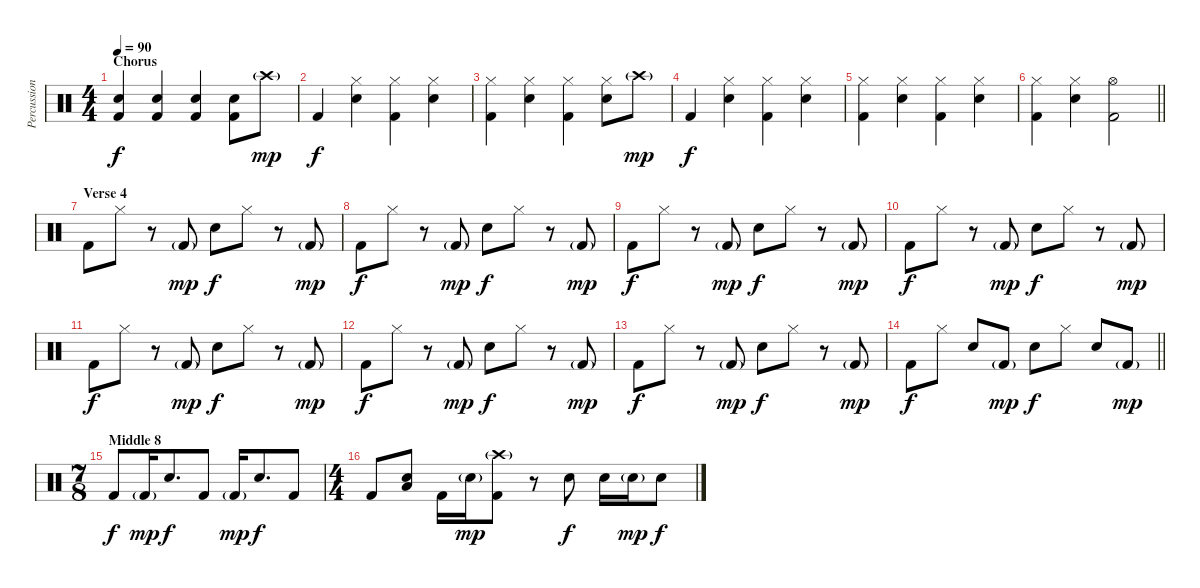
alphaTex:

\track ("Percussion" "Percussion") {instrument percussion}
\staff {score}
\articulation defaults
\ts (4 4)
\section ("" "Chorus")
\tempo 90
\clef neutral
\ks c
("Snare (hit) 2" "Kick (hit) 2").4{dy f} ("Snare (hit) 2" "Kick (hit) 2").4 ("Snare (hit) 2" "Kick (hit) 2").4 ("Snare (hit) 2" "Kick (hit) 2").8 "Crash high (hit)"{g}.8{dy mp} |
"Kick (hit) 2".4{dy f} ("Hi-Hat (closed)" "Snare (hit) 2").4 ("Hi-Hat (closed)" "Kick (hit) 2").4 ("Hi-Hat (closed)" "Snare (hit) 2").4 |
("Hi-Hat (closed)" "Kick (hit) 2").4 ("Hi-Hat (closed)" "Snare (hit) 2").4 ("Hi-Hat (closed)" "Kick (hit) 2").4 ("Hi-Hat (closed)" "Snare (hit) 2").8 "Crash high (hit)"{g}.8{dy mp} |
"Kick (hit) 2".4{dy f} ("Hi-Hat (closed)" "Snare (hit) 2").4 ("Hi-Hat (closed)" "Kick (hit) 2").4 ("Hi-Hat (closed)" "Snare (hit) 2").4 |
("Hi-Hat (closed)" "Kick (hit) 2").4 ("Hi-Hat (closed)" "Snare (hit) 2").4 ("Hi-Hat (closed)" "Kick (hit) 2").4 ("Hi-Hat (closed)" "Snare (hit) 2").4 |
\barLineRight lightlight
("Hi-Hat (closed)" "Kick (hit) 2").4 ("Hi-Hat (closed)" "Snare (hit) 2").4 ("Hi-Hat (open)" "Kick (hit) 2").2 |
\section ("" "Verse 4")
"Kick (hit) 2".8 "Hi-Hat (closed)".8 r.8 "Kick (hit) 2"{g}.8{dy mp} "Snare (hit) 2".8{dy f} "Hi-Hat (closed)".8 r.8 "Kick (hit) 2"{g}.8{dy mp} |
"Kick (hit) 2".8{dy f} "Hi-Hat (closed)".8 r.8 "Kick (hit) 2"{g}.8{dy mp} "Snare (hit) 2".8{dy f} "Hi-Hat (closed)".8 r.8 "Kick (hit) 2"{g}.8{dy mp} |
"Kick (hit) 2".8{dy f} "Hi-Hat (closed)".8 r.8 "Kick (hit) 2"{g}.8{dy mp} "Snare (hit) 2".8{dy f} "Hi-Hat (closed)".8 r.8 "Kick (hit) 2"{g}.8{dy mp} |
"Kick (hit) 2".8{dy f} "Hi-Hat (closed)".8 r.8 "Kick (hit) 2"{g}.8{dy mp} "Snare (hit) 2".8{dy f} "Hi-Hat (closed)".8 r.8 "Kick (hit) 2"{g}.8{dy mp} |
"Kick (hit) 2".8{dy f} "Hi-Hat (closed)".8 r.8 "Kick (hit) 2"{g}.8{dy mp} "Snare (hit) 2".8{dy f} "Hi-Hat (closed)".8 r.8 "Kick (hit) 2"{g}.8{dy mp} |
"Kick (hit) 2".8{dy f} "Hi-Hat (closed)".8 r.8 "Kick (hit) 2"{g}.8{dy mp} "Snare (hit) 2".8{dy f} "Hi-Hat (closed)".8 r.8 "Kick (hit) 2"{g}.8{dy mp} |
"Kick (hit) 2".8{dy f} "Hi-Hat (closed)".8 r.8 "Kick (hit) 2"{g}.8{dy mp} "Snare (hit) 2".8{dy f} "Hi-Hat (closed)".8 r.8 "Kick (hit) 2"{g}.8{dy mp} |
\barLineRight lightlight "Kick (hit) 2".8{dy f} "Hi-Hat (closed)".8 "Snare (hit) 2".8 "Kick (hit) 2"{g}.8{dy mp} "Snare (hit) 2".8{dy f} "Hi-Hat (closed)".8 "Snare (hit) 2".8 "Kick (hit) 2"{g}.8{dy mp}
|
\ts (7 8)
\section ("" "Middle 8")
"Kick (hit) 2".8{dy f} "Kick (hit) 2"{g}.16{dy mp} "Snare (hit) 2".8{d dy f} "Kick (hit) 2".8 "Kick (hit) 2"{g}.16{dy mp} "Snare (hit) 2".8{d dy f} "Kick (hit) 2".8 |
\ts (4 4)
"Kick (hit) 2".8 ("Snare (hit) 2" "Low Floor Tom (hit)").8 "Kick (hit) 2".16 "Snare (hit) 2"{g}.16{dy mp} ("Crash high (hit)"{g} "Kick (hit) 2").8 r.8 "Snare (hit) 2".8{dy f} "Snare (hit) 2".16 "Snare (hit) 2"{g}.16{dy mp} "Snare (hit) 2".8{dy f}
